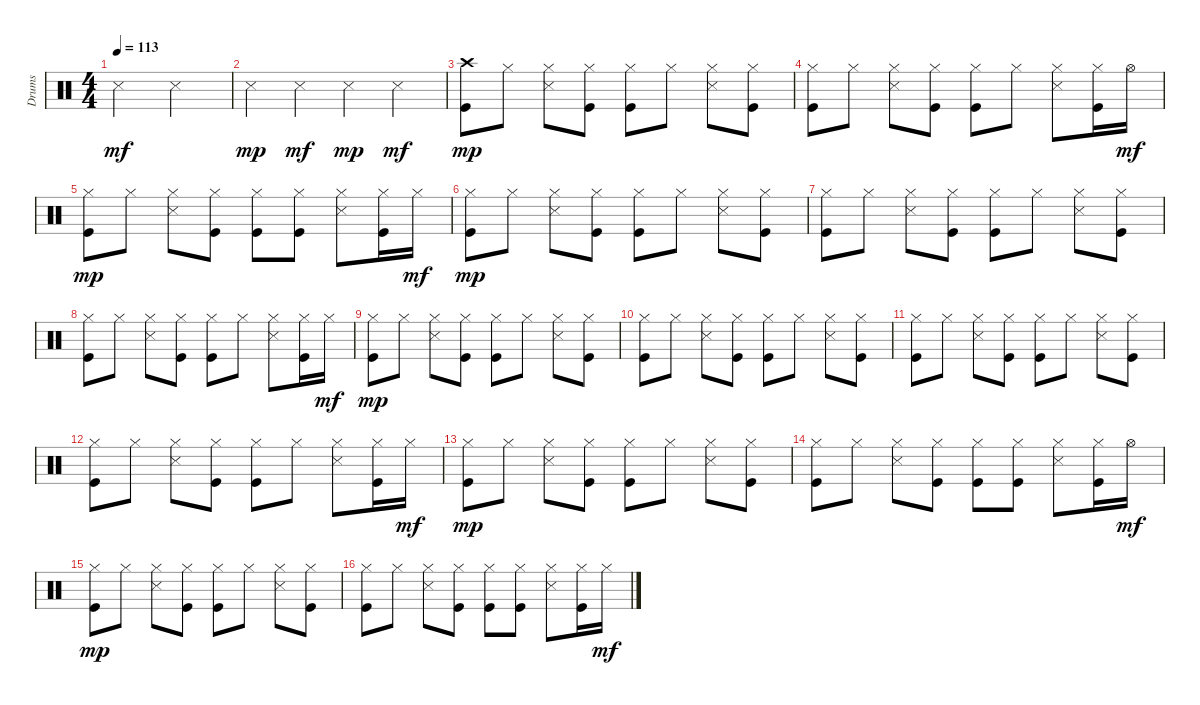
\track ("Drums" "Drums") {instrument percussion}
\staff {score}
\articulation defaults
\ts (4 4)
\tempo 113
\clef neutral
\ks c "Snare (side stick) 3".2{dy mf} "Snare (side stick) 3".2
|
"Snare (side stick) 3".4{dy mp} "Snare (side stick) 3".4{dy mf} "Snare (side stick) 3".4{dy mp} "Snare (side stick) 3".4{dy mf} |
("Kick (hit)" "Crash high (hit)").8{dy mp} "Hi-Hat (closed)".8 ("Snare (side stick) 3" "Hi-Hat (closed)").8 ("Kick (hit)" "Hi-Hat (closed)").8 ("Kick (hit)" "Hi-Hat (closed)").8 "Hi-Hat (closed)".8 ("Snare (side stick) 3" "Hi-Hat (closed)").8 ("Kick (hit)" "Hi-Hat (closed)").8 |
("Kick (hit)" "Hi-Hat (closed)").8 "Hi-Hat (closed)".8 ("Snare (side stick) 3" "Hi-Hat (closed)").8 ("Kick (hit)" "Hi-Hat (closed)").8 ("Kick (hit)" "Hi-Hat (closed)").8 "Hi-Hat (closed)".8 ("Snare (side stick) 3" "Hi-Hat (closed)").8 ("Kick (hit)" "Hi-Hat (closed)").16 "Hi-Hat (open)".16{dy mf} |
("Kick (hit)" "Hi-Hat (closed)").8{dy mp} "Hi-Hat (closed)".8 ("Snare (side stick) 3" "Hi-Hat (closed)").8 ("Kick (hit)" "Hi-Hat (closed)").8 ("Kick (hit)" "Hi-Hat (closed)").8 ("Kick (hit)" "Hi-Hat (closed)").8 ("Snare (side stick) 3" "Hi-Hat (closed)").8 ("Kick (hit)" "Hi-Hat (closed)").16 "Hi-Hat (closed)".16{dy mf} |
("Kick (hit)" "Hi-Hat (closed)").8{dy mp} "Hi-Hat (closed)".8 ("Snare (side stick) 3" "Hi-Hat (closed)").8 ("Kick (hit)" "Hi-Hat (closed)").8 ("Kick (hit)" "Hi-Hat (closed)").8 "Hi-Hat (closed)".8 ("Snare (side stick) 3" "Hi-Hat (closed)").8 ("Kick (hit)" "Hi-Hat (closed)").8 |
("Kick (hit)" "Hi-Hat (closed)").8 "Hi-Hat (closed)".8 ("Snare (side stick) 3" "Hi-Hat (closed)").8 ("Kick (hit)" "Hi-Hat (closed)").8 ("Kick (hit)" "Hi-Hat (closed)").8 "Hi-Hat (closed)".8 ("Snare (side stick) 3" "Hi-Hat (closed)").8 ("Kick (hit)" "Hi-Hat (closed)").8 |
("Kick (hit)" "Hi-Hat (closed)").8 "Hi-Hat (closed)".8 ("Snare (side stick) 3" "Hi-Hat (closed)").8 ("Kick (hit)" "Hi-Hat (closed)").8 ("Kick (hit)" "Hi-Hat (closed)").8 "Hi-Hat (closed)".8 ("Snare (side stick) 3" "Hi-Hat (closed)").8 ("Kick (hit)" "Hi-Hat (closed)").16 "Hi-Hat (closed)".16{dy mf} |
("Kick (hit)" "Hi-Hat (closed)").8{dy mp} "Hi-Hat (closed)".8 ("Snare (side stick) 3" "Hi-Hat (closed)").8 ("Kick (hit)" "Hi-Hat (closed)").8 ("Kick (hit)" "Hi-Hat (closed)").8 "Hi-Hat (closed)".8 ("Snare (side stick) 3" "Hi-Hat (closed)").8 ("Kick (hit)" "Hi-Hat (closed)").8 |
("Kick (hit)" "Hi-Hat (closed)").8 "Hi-Hat (closed)".8 ("Snare (side stick) 3" "Hi-Hat (closed)").8 ("Kick (hit)" "Hi-Hat (closed)").8 ("Kick (hit)" "Hi-Hat (closed)").8 "Hi-Hat (closed)".8 ("Snare (side stick) 3" "Hi-Hat (closed)").8 ("Kick (hit)" "Hi-Hat (closed)").8 |
("Kick (hit)" "Hi-Hat (closed)").8 "Hi-Hat (closed)".8 ("Snare (side stick) 3" "Hi-Hat (closed)").8 ("Kick (hit)" "Hi-Hat (closed)").8 ("Kick (hit)" "Hi-Hat (closed)").8 "Hi-Hat (closed)".8 ("Snare (side stick) 3" "Hi-Hat (closed)").8 ("Kick (hit)" "Hi-Hat (closed)").8 |
("Kick (hit)" "Hi-Hat (closed)").8 "Hi-Hat (closed)".8 ("Snare (side stick) 3" "Hi-Hat (closed)").8 ("Kick (hit)" "Hi-Hat (closed)").8 ("Kick (hit)" "Hi-Hat (closed)").8 "Hi-Hat (closed)".8 ("Snare (side stick) 3" "Hi-Hat (closed)").8 ("Kick (hit)" "Hi-Hat (closed)").16 "Hi-Hat (closed)".16{dy mf} |
("Kick (hit)" "Hi-Hat (closed)").8{dy mp} "Hi-Hat (closed)".8 ("Snare (side stick) 3" "Hi-Hat (closed)").8 ("Kick (hit)" "Hi-Hat (closed)").8 ("Kick (hit)" "Hi-Hat (closed)").8 "Hi-Hat (closed)".8 ("Snare (side stick) 3" "Hi-Hat (closed)").8 ("Kick (hit)" "Hi-Hat (closed)").8 |
("Kick (hit)" "Hi-Hat (closed)").8 "Hi-Hat (closed)".8 ("Snare (side stick) 3" "Hi-Hat (closed)").8 ("Kick (hit)" "Hi-Hat (closed)").8 ("Kick (hit)" "Hi-Hat (closed)").8 ("Kick (hit)" "Hi-Hat (closed)").8 ("Snare (side stick) 3" "Hi-Hat (closed)").8 ("Kick (hit)" "Hi-Hat (closed)").16 "Hi-Hat (open)".16{dy mf} |
("Kick (hit)" "Hi-Hat (closed)").8{dy mp} "Hi-Hat (closed)".8 ("Snare (side stick) 3" "Hi-Hat (closed)").8 ("Kick (hit)" "Hi-Hat (closed)").8 ("Kick (hit)" "Hi-Hat (closed)").8 "Hi-Hat (closed)".8 ("Snare (side stick) 3" "Hi-Hat (closed)").8 ("Kick (hit)" "Hi-Hat (closed)").8 |
("Kick (hit)" "Hi-Hat (closed)").8 "Hi-Hat (closed)".8 ("Snare (side stick) 3" "Hi-Hat (closed)").8 ("Kick (hit)" "Hi-Hat (closed)").8 ("Kick (hit)" "Hi-Hat (closed)").8 ("Kick (hit)" "Hi-Hat (closed)").8 ("Snare (side stick) 3" "Hi-Hat (closed)").8 ("Kick (hit)" "Hi-Hat (closed)").16 "Hi-Hat (closed)".16{dy mf}
